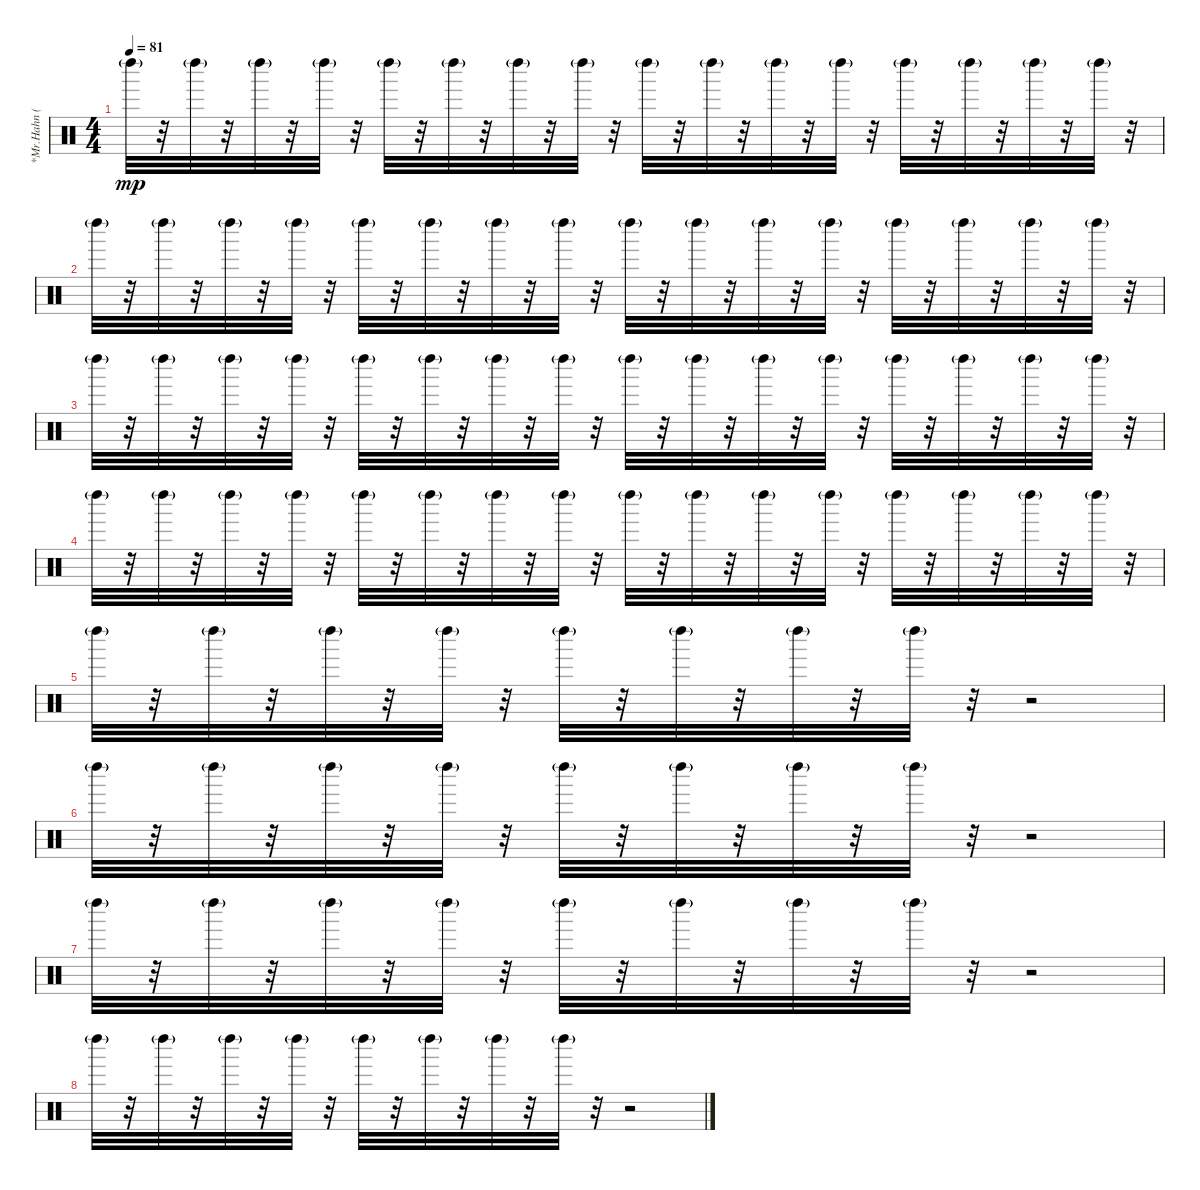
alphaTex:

\track ("*Mr.Hahn (Sampler)" "*Mr.Hahn (") {instrument percussion}
\staff {score}
\articulation defaults
\ts (4 4)
\tempo 81
\clef neutral
\ks c "Left Maraca (hit)"{g}.32{dy mp}
r.32 "Left Maraca (hit)"{g}.32 r.32 "Left Maraca (hit)"{g}.32 r.32 "Left Maraca (hit)"{g}.32 r.32 "Left Maraca (hit)"{g}.32 r.32 "Left Maraca (hit)"{g}.32 r.32 "Left Maraca (hit)"{g}.32 r.32 "Left Maraca (hit)"{g}.32 r.32 "Left Maraca (hit)"{g}.32 r.32 "Left Maraca (hit)"{g}.32 r.32 "Left Maraca (hit)"{g}.32 r.32 "Left Maraca (hit)"{g}.32 r.32 "Left Maraca (hit)"{g}.32 r.32 "Left Maraca (hit)"{g}.32 r.32 "Left Maraca (hit)"{g}.32 r.32 "Left Maraca (hit)"{g}.32 r.32 |
"Left Maraca (hit)"{g}.32 r.32 "Left Maraca (hit)"{g}.32 r.32 "Left Maraca (hit)"{g}.32 r.32 "Left Maraca (hit)"{g}.32 r.32 "Left Maraca (hit)"{g}.32 r.32 "Left Maraca (hit)"{g}.32 r.32 "Left Maraca (hit)"{g}.32 r.32 "Left Maraca (hit)"{g}.32 r.32 "Left Maraca (hit)"{g}.32 r.32 "Left Maraca (hit)"{g}.32 r.32 "Left Maraca (hit)"{g}.32 r.32 "Left Maraca (hit)"{g}.32 r.32 "Left Maraca (hit)"{g}.32 r.32 "Left Maraca (hit)"{g}.32 r.32 "Left Maraca (hit)"{g}.32 r.32 "Left Maraca (hit)"{g}.32 r.32 |
"Left Maraca (hit)"{g}.32 r.32 "Left Maraca (hit)"{g}.32 r.32 "Left Maraca (hit)"{g}.32 r.32 "Left Maraca (hit)"{g}.32 r.32 "Left Maraca (hit)"{g}.32 r.32 "Left Maraca (hit)"{g}.32 r.32 "Left Maraca (hit)"{g}.32 r.32 "Left Maraca (hit)"{g}.32 r.32 "Left Maraca (hit)"{g}.32 r.32 "Left Maraca (hit)"{g}.32 r.32 "Left Maraca (hit)"{g}.32 r.32 "Left Maraca (hit)"{g}.32 r.32 "Left Maraca (hit)"{g}.32 r.32 "Left Maraca (hit)"{g}.32 r.32 "Left Maraca (hit)"{g}.32 r.32 "Left Maraca (hit)"{g}.32 r.32 |
"Left Maraca (hit)"{g}.32 r.32 "Left Maraca (hit)"{g}.32 r.32 "Left Maraca (hit)"{g}.32 r.32 "Left Maraca (hit)"{g}.32 r.32 "Left Maraca (hit)"{g}.32 r.32 "Left Maraca (hit)"{g}.32 r.32 "Left Maraca (hit)"{g}.32 r.32 "Left Maraca (hit)"{g}.32 r.32 "Left Maraca (hit)"{g}.32 r.32 "Left Maraca (hit)"{g}.32 r.32 "Left Maraca (hit)"{g}.32 r.32 "Left Maraca (hit)"{g}.32 r.32 "Left Maraca (hit)"{g}.32 r.32 "Left Maraca (hit)"{g}.32 r.32 "Left Maraca (hit)"{g}.32 r.32 "Left Maraca (hit)"{g}.32 r.32 |
"Left Maraca (hit)"{g}.32 r.32 "Left Maraca (hit)"{g}.32 r.32 "Left Maraca (hit)"{g}.32 r.32 "Left Maraca (hit)"{g}.32 r.32 "Left Maraca (hit)"{g}.32 r.32 "Left Maraca (hit)"{g}.32 r.32 "Left Maraca (hit)"{g}.32 r.32 "Left Maraca (hit)"{g}.32 r.32 r.2 |
"Left Maraca (hit)"{g}.32 r.32 "Left Maraca (hit)"{g}.32 r.32 "Left Maraca (hit)"{g}.32 r.32 "Left Maraca (hit)"{g}.32 r.32 "Left Maraca (hit)"{g}.32 r.32 "Left Maraca (hit)"{g}.32 r.32 "Left Maraca (hit)"{g}.32 r.32 "Left Maraca (hit)"{g}.32 r.32 r.2 |
"Left Maraca (hit)"{g}.32 r.32 "Left Maraca (hit)"{g}.32 r.32 "Left Maraca (hit)"{g}.32 r.32 "Left Maraca (hit)"{g}.32 r.32 "Left Maraca (hit)"{g}.32 r.32 "Left Maraca (hit)"{g}.32 r.32 "Left Maraca (hit)"{g}.32 r.32 "Left Maraca (hit)"{g}.32 r.32 r.2 |
"Left Maraca (hit)"{g}.32 r.32 "Left Maraca (hit)"{g}.32 r.32 "Left Maraca (hit)"{g}.32 r.32 "Left Maraca (hit)"{g}.32 r.32 "Left Maraca (hit)"{g}.32 r.32 "Left Maraca (hit)"{g}.32 r.32 "Left Maraca (hit)"{g}.32 r.32 "Left Maraca (hit)"{g}.32 r.32 r.2
